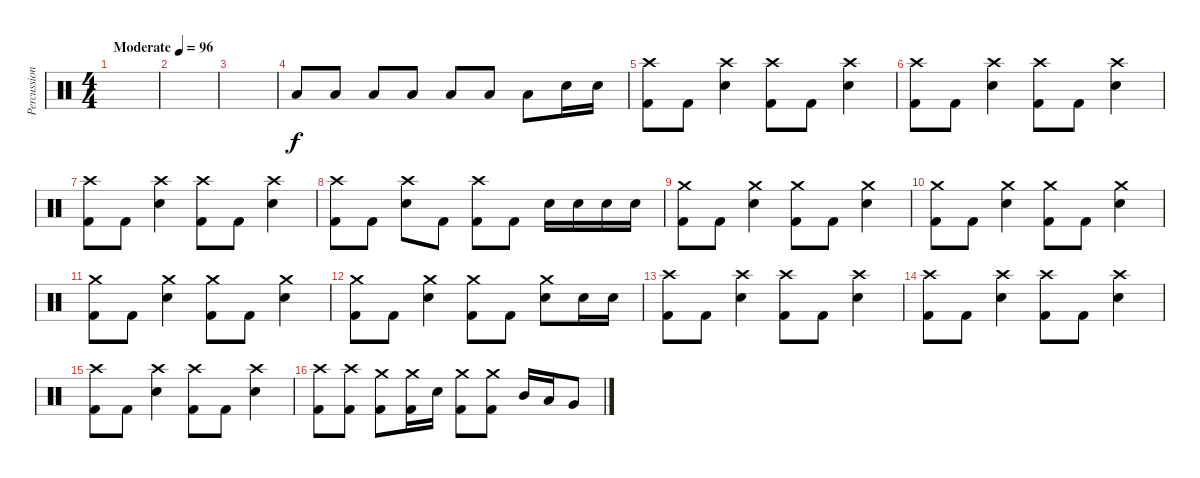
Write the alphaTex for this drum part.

\track ("Percussion" "Percussion") {instrument percussion}
\staff {score}
\articulation defaults
\ts (4 4)
\tempo (96 "Moderate")
\clef neutral
\ks c
|
|
|
"Low Floor Tom (hit)".8 "Low Floor Tom (hit)".8 "Low Floor Tom (hit)".8 "Low Floor Tom (hit)".8 "Low Floor Tom (hit)".8 "Low Floor Tom (hit)".8 "Low Floor Tom (hit)".8 "Electric Snare (hit)".16 "Electric Snare (hit)".16 |
("Crash high (hit)" "Kick (hit) 2").8 "Kick (hit) 2".8 ("Crash high (hit)" "Electric Snare (hit)").4 ("Crash high (hit)" "Kick (hit) 2").8 "Kick (hit) 2".8 ("Crash high (hit)" "Electric Snare (hit)").4 |
("Crash high (hit)" "Kick (hit) 2").8 "Kick (hit) 2".8 ("Crash high (hit)" "Electric Snare (hit)").4 ("Crash high (hit)" "Kick (hit) 2").8 "Kick (hit) 2".8 ("Crash high (hit)" "Electric Snare (hit)").4 |
("Crash high (hit)" "Kick (hit) 2").8 "Kick (hit) 2".8 ("Crash high (hit)" "Electric Snare (hit)").4 ("Crash high (hit)" "Kick (hit) 2").8 "Kick (hit) 2".8 ("Crash high (hit)" "Electric Snare (hit)").4 |
("Crash high (hit)" "Kick (hit) 2").8 "Kick (hit) 2".8 ("Crash high (hit)" "Electric Snare (hit)").8 "Kick (hit) 2".8 ("Crash high (hit)" "Kick (hit) 2").8 "Kick (hit) 2".8 "Electric Snare (hit)".16 "Electric Snare (hit)".16 "Electric Snare (hit)".16 "Electric Snare (hit)".16 |
("Crash medium (hit)" "Kick (hit) 2").8 "Kick (hit) 2".8 ("Crash medium (hit)" "Electric Snare (hit)").4 ("Crash medium (hit)" "Kick (hit) 2").8 "Kick (hit) 2".8 ("Crash medium (hit)" "Electric Snare (hit)").4 |
("Crash medium (hit)" "Kick (hit) 2").8 "Kick (hit) 2".8 ("Crash medium (hit)" "Electric Snare (hit)").4 ("Crash medium (hit)" "Kick (hit) 2").8 "Kick (hit) 2".8 ("Crash medium (hit)" "Electric Snare (hit)").4 |
("Crash medium (hit)" "Kick (hit) 2").8 "Kick (hit) 2".8 ("Crash medium (hit)" "Electric Snare (hit)").4 ("Crash medium (hit)" "Kick (hit) 2").8 "Kick (hit) 2".8 ("Crash medium (hit)" "Electric Snare (hit)").4 |
("Crash medium (hit)" "Kick (hit) 2").8 "Kick (hit) 2".8 ("Crash medium (hit)" "Electric Snare (hit)").4 ("Crash medium (hit)" "Kick (hit) 2").8 "Kick (hit) 2".8 ("Crash medium (hit)" "Electric Snare (hit)").8 "Electric Snare (hit)".16 "Electric Snare (hit)".16 |
("Crash high (hit)" "Kick (hit) 2").8 "Kick (hit) 2".8 ("Crash high (hit)" "Electric Snare (hit)").4 ("Crash high (hit)" "Kick (hit) 2").8 "Kick (hit) 2".8 ("Crash high (hit)" "Electric Snare (hit)").4 |
("Crash high (hit)" "Kick (hit) 2").8 "Kick (hit) 2".8 ("Crash high (hit)" "Electric Snare (hit)").4 ("Crash high (hit)" "Kick (hit) 2").8 "Kick (hit) 2".8 ("Crash high (hit)" "Electric Snare (hit)").4 |
("Crash high (hit)" "Kick (hit) 2").8 "Kick (hit) 2".8 ("Crash high (hit)" "Electric Snare (hit)").4 ("Crash high (hit)" "Kick (hit) 2").8 "Kick (hit) 2".8 ("Crash high (hit)" "Electric Snare (hit)").4 |
("Crash high (hit)" "Kick (hit) 2").8 ("Crash high (hit)" "Kick (hit) 2").8 ("Crash medium (hit)" "Kick (hit) 2").8 ("Crash medium (hit)" "Kick (hit) 2").16 "Electric Snare (hit)".16 ("Crash medium (hit)" "Kick (hit) 2").8 ("Crash medium (hit)" "Kick (hit) 2").8 "Mid Tom (hit)".16 "Low Tom (hit)".16 "Very Low Tom (hit)".8
